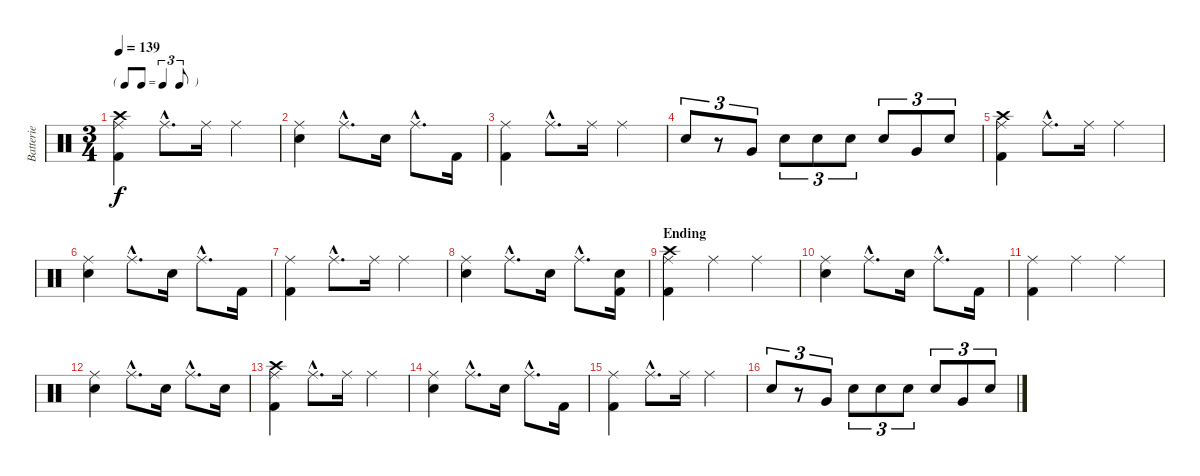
\track ("Batterie" "Batterie") {instrument percussion}
\staff {score}
\articulation defaults
\ts (3 4)
\tf triplet8th
\tempo 139
\clef neutral
\ks c
("Crash high (hit)" "Ride (middle)" "Kick (hit) 2").4{dy f} "Ride (middle)"{hac}.8{d} "Ride (middle)".16 "Ride (middle)".4 |
("Ride (middle)" "Snare (hit) 2").4 "Ride (middle)"{hac}.8{d} "Snare (hit) 2".16 "Ride (middle)"{hac}.8{d} "Kick (hit) 2".16 |
("Ride (middle)" "Kick (hit) 2").4 "Ride (middle)"{hac}.8{d} "Ride (middle)".16 "Ride (middle)".4 |
"Snare (hit) 2".8{tu (3 2)} r.8{tu (3 2)} "Very Low Tom (hit)".8{tu (3 2)} "Snare (hit) 2".8{tu (3 2)} "Electric Snare (hit)".8{tu (3 2)} "Snare (hit) 2".8{tu (3 2)} "Snare (hit) 2".8{tu (3 2)} "Very Low Tom (hit)".8{tu (3 2)} "Snare (hit) 2".8{tu (3 2)} |
("Crash high (hit)" "Ride (middle)" "Kick (hit) 2").4 "Ride (middle)"{hac}.8{d} "Ride (middle)".16 "Ride (middle)".4 |
("Ride (middle)" "Snare (hit) 2").4 "Ride (middle)"{hac}.8{d} "Snare (hit) 2".16 "Ride (middle)"{hac}.8{d} "Kick (hit) 2".16 |
("Ride (middle)" "Kick (hit) 2").4 "Ride (middle)"{hac}.8{d} "Ride (middle)".16 "Ride (middle)".4 |
("Ride (middle)" "Snare (hit) 2").4 "Ride (middle)"{hac}.8{d} "Snare (hit) 2".16 "Ride (middle)"{hac}.8{d} ("Snare (hit) 2" "Kick (hit) 2").16 |
\section ("" "Ending")
("Crash high (hit)" "Ride (middle)" "Kick (hit) 2").4 "Ride (middle)".4 "Ride (middle)".4 |
("Ride (middle)" "Snare (hit) 2").4 "Ride (middle)"{hac}.8{d} "Snare (hit) 2".16 "Ride (middle)"{hac}.8{d} "Kick (hit) 2".16 |
("Ride (middle)" "Kick (hit) 2").4 "Ride (middle)".4 "Ride (middle)".4 |
("Ride (middle)" "Snare (hit) 2").4 "Ride (middle)"{hac}.8{d} "Snare (hit) 2".16 "Ride (middle)"{hac}.8{d} "Snare (hit) 2".16 |
("Crash high (hit)" "Ride (middle)" "Kick (hit) 2").4 "Ride (middle)"{hac}.8{d} "Ride (middle)".16 "Ride (middle)".4 |
("Ride (middle)" "Snare (hit) 2").4 "Ride (middle)"{hac}.8{d} "Snare (hit) 2".16 "Ride (middle)"{hac}.8{d} "Kick (hit) 2".16 |
("Ride (middle)" "Kick (hit) 2").4 "Ride (middle)"{hac}.8{d} "Ride (middle)".16 "Ride (middle)".4 |
"Snare (hit) 2".8{tu (3 2)} r.8{tu (3 2)} "Very Low Tom (hit)".8{tu (3 2)} "Snare (hit) 2".8{tu (3 2)} "Electric Snare (hit)".8{tu (3 2)} "Snare (hit) 2".8{tu (3 2)} "Snare (hit) 2".8{tu (3 2)} "Very Low Tom (hit)".8{tu (3 2)} "Snare (hit) 2".8{tu (3 2)}
